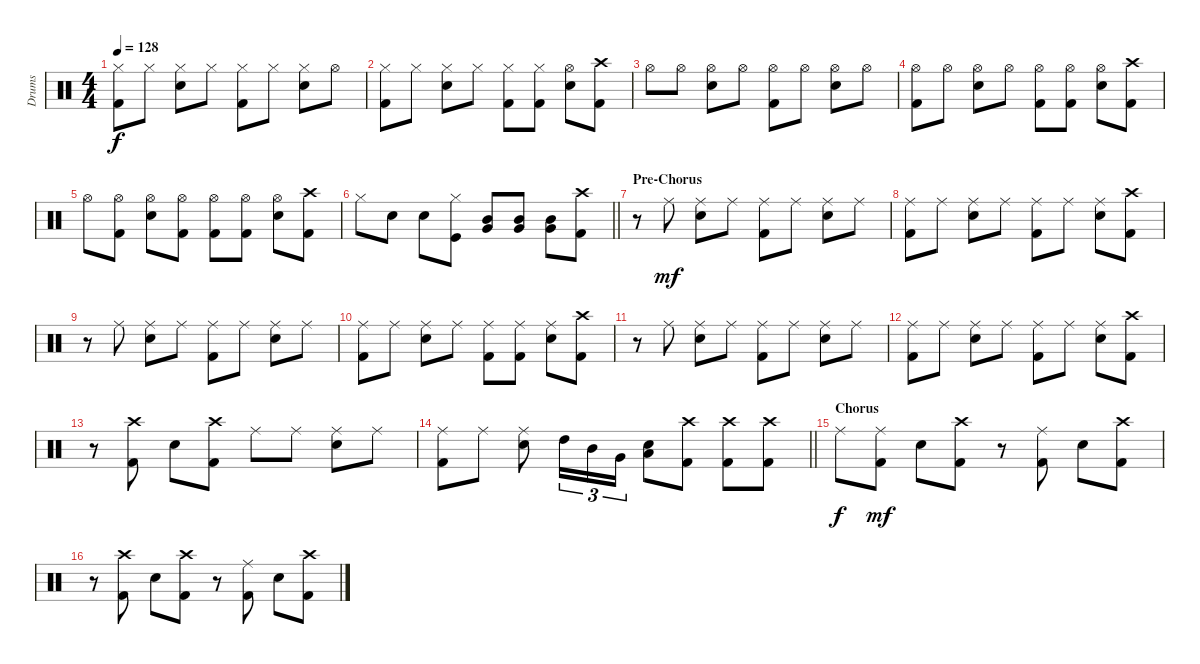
\track ("Drums" "Drums") {instrument percussion}
\staff {score}
\articulation defaults
\ts (4 4)
\tempo 128
\clef neutral
\ks c
("Hi-Hat (closed)" "Kick (hit) 2").8{dy f} "Hi-Hat (closed)".8 ("Hi-Hat (closed)" "Snare (hit) 2").8 "Hi-Hat (closed)".8 ("Hi-Hat (closed)" "Kick (hit) 2").8 "Hi-Hat (closed)".8 ("Hi-Hat (closed)" "Snare (hit) 2").8 "Hi-Hat (open)".8 |
("Hi-Hat (closed)" "Kick (hit) 2").8 "Hi-Hat (closed)".8 ("Hi-Hat (closed)" "Snare (hit) 2").8 "Hi-Hat (closed)".8 ("Hi-Hat (closed)" "Kick (hit) 2").8 ("Hi-Hat (closed)" "Kick (hit) 2").8 ("Hi-Hat (open)" "Snare (hit) 2").8 ("Crash high (hit)" "Kick (hit) 2").8 |
"Hi-Hat (open)".8 "Hi-Hat (open)".8 ("Hi-Hat (open)" "Snare (hit) 2").8 "Hi-Hat (open)".8 ("Hi-Hat (open)" "Kick (hit) 2").8 "Hi-Hat (open)".8 ("Hi-Hat (open)" "Snare (hit) 2").8 "Hi-Hat (open)".8 |
("Hi-Hat (open)" "Kick (hit) 2").8 "Hi-Hat (open)".8 ("Hi-Hat (open)" "Snare (hit) 2").8 "Hi-Hat (open)".8 ("Hi-Hat (open)" "Kick (hit) 2").8 ("Hi-Hat (open)" "Kick (hit) 2").8 ("Hi-Hat (open)" "Snare (hit) 2").8 ("Crash high (hit)" "Kick (hit) 2").8 |
"Hi-Hat (open)".8 ("Hi-Hat (open)" "Kick (hit) 2").8 ("Hi-Hat (open)" "Snare (hit) 2").8 ("Hi-Hat (open)" "Kick (hit) 2").8 ("Hi-Hat (open)" "Kick (hit) 2").8 ("Hi-Hat (open)" "Kick (hit) 2").8 ("Hi-Hat (open)" "Snare (hit) 2").8 ("Crash high (hit)" "Kick (hit) 2").8 |
\barLineRight lightlight "Hi-Hat (closed)".8 "Snare (hit) 2".8 "Snare (hit) 2".8
("Hi-Hat (closed)" "Kick (hit)").8 ("Mid Tom (hit)" "Very Low Tom (hit)").8 ("Mid Tom (hit)" "Very Low Tom (hit)").8 ("Mid Tom (hit)" "Very Low Tom (hit)").8 ("Crash high (hit)" "Kick (hit) 2").8 |
\section ("" "Pre-Chorus")
r.8 "Ride (middle)".8{dy mf} ("Ride (middle)" "Snare (hit) 2").8 "Ride (middle)".8 ("Ride (middle)" "Kick (hit) 2").8 "Ride (middle)".8 ("Ride (middle)" "Snare (hit) 2").8 "Ride (middle)".8 |
("Ride (middle)" "Kick (hit) 2").8 "Ride (middle)".8 ("Ride (middle)" "Snare (hit) 2").8 "Ride (middle)".8 ("Ride (middle)" "Kick (hit) 2").8 "Ride (middle)".8 ("Ride (middle)" "Snare (hit) 2").8 ("Crash high (hit)" "Kick (hit) 2").8 |
r.8 "Ride (middle)".8 ("Ride (middle)" "Snare (hit) 2").8 "Ride (middle)".8 ("Ride (middle)" "Kick (hit) 2").8 "Ride (middle)".8 ("Ride (middle)" "Snare (hit) 2").8 "Ride (middle)".8 |
("Ride (middle)" "Kick (hit) 2").8 "Ride (middle)".8 ("Ride (middle)" "Snare (hit) 2").8 "Ride (middle)".8 ("Ride (middle)" "Kick (hit) 2").8 ("Ride (middle)" "Kick (hit) 2").8 ("Ride (middle)" "Snare (hit) 2").8 ("Crash high (hit)" "Kick (hit) 2").8 |
r.8 "Ride (middle)".8 ("Ride (middle)" "Snare (hit) 2").8 "Ride (middle)".8 ("Ride (middle)" "Kick (hit) 2").8 "Ride (middle)".8 ("Ride (middle)" "Snare (hit) 2").8 "Ride (middle)".8 |
("Ride (middle)" "Kick (hit) 2").8 "Ride (middle)".8 ("Ride (middle)" "Snare (hit) 2").8 "Ride (middle)".8 ("Ride (middle)" "Kick (hit) 2").8 "Ride (middle)".8 ("Ride (middle)" "Snare (hit) 2").8 ("Crash high (hit)" "Kick (hit) 2").8 |
r.8 ("Crash high (hit)" "Kick (hit) 2").8 "Snare (hit) 2".8 ("Crash high (hit)" "Kick (hit) 2").8 "Ride (middle)".8 "Ride (middle)".8 ("Ride (middle)" "Snare (hit) 2").8 "Ride (middle)".8 |
\barLineRight lightlight
("Ride (middle)" "Kick (hit) 2").8 "Ride (middle)".8 ("Ride (middle)" "Snare (hit) 2").8 "High Tom (hit)".16{tu (3 2)} "Mid Tom (hit)".16{tu (3 2)} "Very Low Tom (hit)".16{tu (3 2)} ("Snare (hit) 2" "Low Tom (hit)").8 ("Crash high (hit)" "Kick (hit) 2").8 ("Crash high (hit)" "Kick (hit) 2").8 ("Crash high (hit)" "Kick (hit) 2").8 |
\section ("" "Chorus")
"Ride (middle)".8{dy f} ("Ride (middle)" "Kick (hit) 2").8{dy mf} "Snare (hit) 2".8 ("Crash high (hit)" "Kick (hit) 2").8 r.8 ("Ride (middle)" "Kick (hit) 2").8 "Snare (hit) 2".8 ("Crash high (hit)" "Kick (hit) 2").8 |
r.8 ("Crash high (hit)" "Kick (hit) 2").8 "Snare (hit) 2".8 ("Crash high (hit)" "Kick (hit) 2").8 r.8 ("Ride (middle)" "Kick (hit) 2").8 "Snare (hit) 2".8 ("Crash high (hit)" "Kick (hit) 2").8
